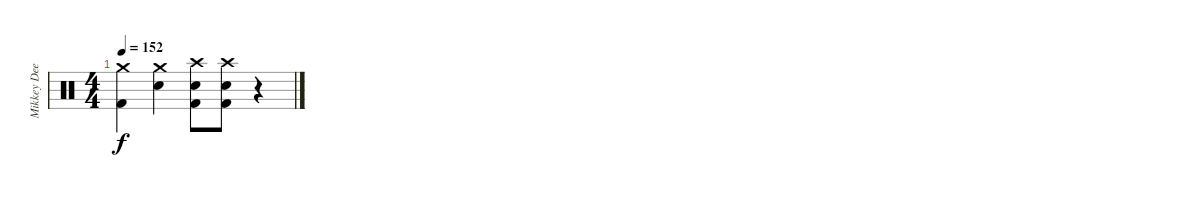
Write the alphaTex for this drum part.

\track ("Mikkey Dee" "Mikkey Dee") {instrument percussion}
\staff {score}
\articulation defaults
\ts (4 4)
\tempo 152
\clef neutral
\ks c
("Crash medium (hit)" "Kick (hit) 2").4{dy f} ("Crash medium (hit)" "Snare (hit) 2").4 ("Crash high (hit)" "Snare (hit) 2" "Kick (hit) 2").8 ("Crash high (hit)" "Snare (hit) 2" "Kick (hit) 2").8 r.4
